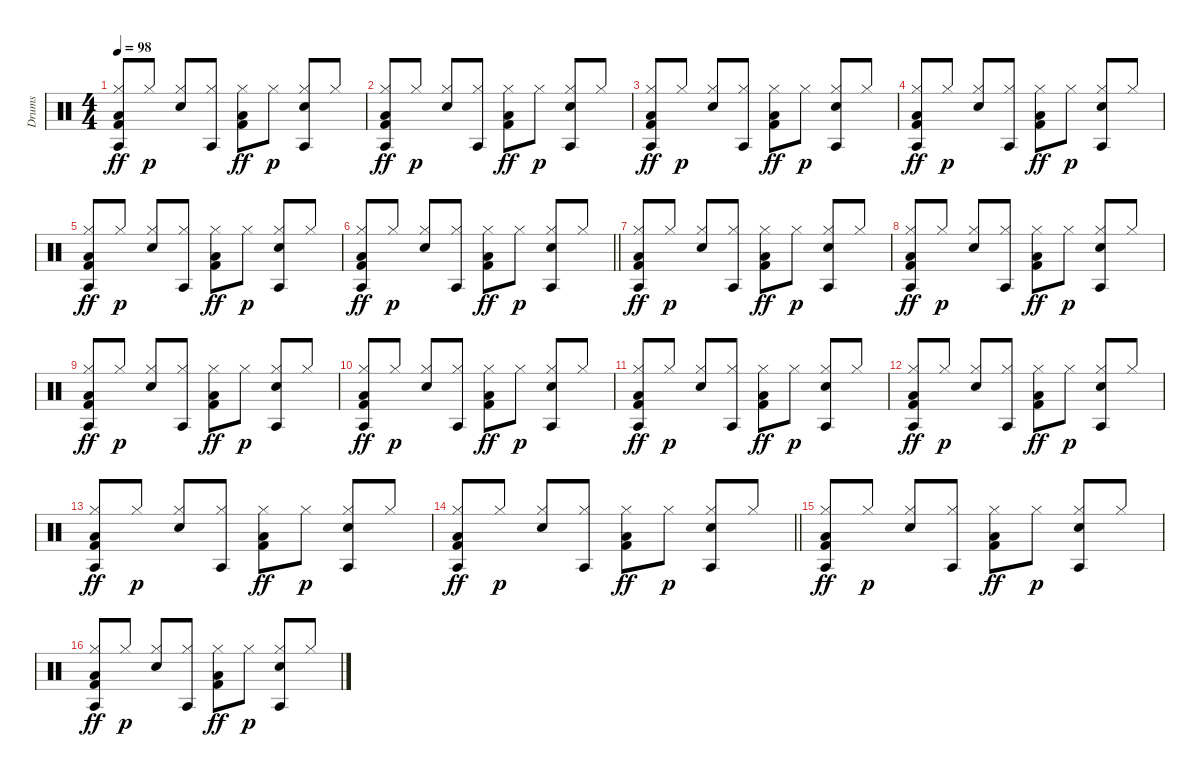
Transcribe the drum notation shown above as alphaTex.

\track ("Drums" "Drums") {instrument percussion}
\staff {score}
\articulation defaults
\ts (4 4)
\tempo 98
\clef neutral
\ks c
("Agogo tow (hit)" "Hi-Hat (closed)" "Low Floor Tom (hit)" "Kick (hit) 2").8{dy ff} "Hi-Hat (closed)".8{dy p} ("Hi-Hat (closed)" "Snare (hit) 2").8 ("Agogo tow (hit)" "Hi-Hat (closed)").8 ("Hi-Hat (closed)" "Low Floor Tom (hit)" "Kick (hit) 2").8{dy ff} "Hi-Hat (closed)".8{dy p} ("Agogo tow (hit)" "Hi-Hat (closed)" "Snare (hit) 2").8 "Hi-Hat (closed)".8 |
("Agogo tow (hit)" "Hi-Hat (closed)" "Low Floor Tom (hit)" "Kick (hit) 2").8{dy ff} "Hi-Hat (closed)".8{dy p} ("Hi-Hat (closed)" "Snare (hit) 2").8 ("Agogo tow (hit)" "Hi-Hat (closed)").8 ("Hi-Hat (closed)" "Low Floor Tom (hit)" "Kick (hit) 2").8{dy ff} "Hi-Hat (closed)".8{dy p} ("Agogo tow (hit)" "Hi-Hat (closed)" "Snare (hit) 2").8 "Hi-Hat (closed)".8 |
("Agogo tow (hit)" "Hi-Hat (closed)" "Low Floor Tom (hit)" "Kick (hit) 2").8{dy ff} "Hi-Hat (closed)".8{dy p} ("Hi-Hat (closed)" "Snare (hit) 2").8 ("Agogo tow (hit)" "Hi-Hat (closed)").8 ("Hi-Hat (closed)" "Low Floor Tom (hit)" "Kick (hit) 2").8{dy ff} "Hi-Hat (closed)".8{dy p} ("Agogo tow (hit)" "Hi-Hat (closed)" "Snare (hit) 2").8 "Hi-Hat (closed)".8 |
("Agogo tow (hit)" "Hi-Hat (closed)" "Low Floor Tom (hit)" "Kick (hit) 2").8{dy ff} "Hi-Hat (closed)".8{dy p} ("Hi-Hat (closed)" "Snare (hit) 2").8 ("Agogo tow (hit)" "Hi-Hat (closed)").8 ("Hi-Hat (closed)" "Low Floor Tom (hit)" "Kick (hit) 2").8{dy ff} "Hi-Hat (closed)".8{dy p} ("Agogo tow (hit)" "Hi-Hat (closed)" "Snare (hit) 2").8 "Hi-Hat (closed)".8 |
("Agogo tow (hit)" "Hi-Hat (closed)" "Low Floor Tom (hit)" "Kick (hit) 2").8{dy ff} "Hi-Hat (closed)".8{dy p} ("Hi-Hat (closed)" "Snare (hit) 2").8 ("Agogo tow (hit)" "Hi-Hat (closed)").8 ("Hi-Hat (closed)" "Low Floor Tom (hit)" "Kick (hit) 2").8{dy ff} "Hi-Hat (closed)".8{dy p} ("Agogo tow (hit)" "Hi-Hat (closed)" "Snare (hit) 2").8 "Hi-Hat (closed)".8 |
\barLineRight lightlight
("Agogo tow (hit)" "Hi-Hat (closed)" "Low Floor Tom (hit)" "Kick (hit) 2").8{dy ff} "Hi-Hat (closed)".8{dy p} ("Hi-Hat (closed)" "Snare (hit) 2").8 ("Agogo tow (hit)" "Hi-Hat (closed)").8 ("Hi-Hat (closed)" "Low Floor Tom (hit)" "Kick (hit) 2").8{dy ff} "Hi-Hat (closed)".8{dy p} ("Agogo tow (hit)" "Hi-Hat (closed)" "Snare (hit) 2").8 "Hi-Hat (closed)".8 |
\section ("" "")
("Agogo tow (hit)" "Hi-Hat (closed)" "Low Floor Tom (hit)" "Kick (hit) 2").8{dy ff} "Hi-Hat (closed)".8{dy p} ("Hi-Hat (closed)" "Snare (hit) 2").8 ("Agogo tow (hit)" "Hi-Hat (closed)").8 ("Hi-Hat (closed)" "Low Floor Tom (hit)" "Kick (hit) 2").8{dy ff} "Hi-Hat (closed)".8{dy p} ("Agogo tow (hit)" "Hi-Hat (closed)" "Snare (hit) 2").8 "Hi-Hat (closed)".8 |
("Agogo tow (hit)" "Hi-Hat (closed)" "Low Floor Tom (hit)" "Kick (hit) 2").8{dy ff} "Hi-Hat (closed)".8{dy p} ("Hi-Hat (closed)" "Snare (hit) 2").8 ("Agogo tow (hit)" "Hi-Hat (closed)").8 ("Hi-Hat (closed)" "Low Floor Tom (hit)" "Kick (hit) 2").8{dy ff} "Hi-Hat (closed)".8{dy p} ("Agogo tow (hit)" "Hi-Hat (closed)" "Snare (hit) 2").8 "Hi-Hat (closed)".8 |
("Agogo tow (hit)" "Hi-Hat (closed)" "Low Floor Tom (hit)" "Kick (hit) 2").8{dy ff} "Hi-Hat (closed)".8{dy p} ("Hi-Hat (closed)" "Snare (hit) 2").8 ("Agogo tow (hit)" "Hi-Hat (closed)").8 ("Hi-Hat (closed)" "Low Floor Tom (hit)" "Kick (hit) 2").8{dy ff} "Hi-Hat (closed)".8{dy p} ("Agogo tow (hit)" "Hi-Hat (closed)" "Snare (hit) 2").8 "Hi-Hat (closed)".8 |
("Agogo tow (hit)" "Hi-Hat (closed)" "Low Floor Tom (hit)" "Kick (hit) 2").8{dy ff} "Hi-Hat (closed)".8{dy p} ("Hi-Hat (closed)" "Snare (hit) 2").8 ("Agogo tow (hit)" "Hi-Hat (closed)").8 ("Hi-Hat (closed)" "Low Floor Tom (hit)" "Kick (hit) 2").8{dy ff} "Hi-Hat (closed)".8{dy p} ("Agogo tow (hit)" "Hi-Hat (closed)" "Snare (hit) 2").8 "Hi-Hat (closed)".8 |
("Agogo tow (hit)" "Hi-Hat (closed)" "Low Floor Tom (hit)" "Kick (hit) 2").8{dy ff} "Hi-Hat (closed)".8{dy p} ("Hi-Hat (closed)" "Snare (hit) 2").8 ("Agogo tow (hit)" "Hi-Hat (closed)").8 ("Hi-Hat (closed)" "Low Floor Tom (hit)" "Kick (hit) 2").8{dy ff} "Hi-Hat (closed)".8{dy p} ("Agogo tow (hit)" "Hi-Hat (closed)" "Snare (hit) 2").8 "Hi-Hat (closed)".8 |
("Agogo tow (hit)" "Hi-Hat (closed)" "Low Floor Tom (hit)" "Kick (hit) 2").8{dy ff} "Hi-Hat (closed)".8{dy p} ("Hi-Hat (closed)" "Snare (hit) 2").8 ("Agogo tow (hit)" "Hi-Hat (closed)").8 ("Hi-Hat (closed)" "Low Floor Tom (hit)" "Kick (hit) 2").8{dy ff} "Hi-Hat (closed)".8{dy p} ("Agogo tow (hit)" "Hi-Hat (closed)" "Snare (hit) 2").8 "Hi-Hat (closed)".8 |
("Agogo tow (hit)" "Hi-Hat (closed)" "Low Floor Tom (hit)" "Kick (hit) 2").8{dy ff} "Hi-Hat (closed)".8{dy p} ("Hi-Hat (closed)" "Snare (hit) 2").8 ("Agogo tow (hit)" "Hi-Hat (closed)").8 ("Hi-Hat (closed)" "Low Floor Tom (hit)" "Kick (hit) 2").8{dy ff} "Hi-Hat (closed)".8{dy p} ("Agogo tow (hit)" "Hi-Hat (closed)" "Snare (hit) 2").8 "Hi-Hat (closed)".8 |
\barLineRight lightlight
("Agogo tow (hit)" "Hi-Hat (closed)" "Low Floor Tom (hit)" "Kick (hit) 2").8{dy ff} "Hi-Hat (closed)".8{dy p} ("Hi-Hat (closed)" "Snare (hit) 2").8 ("Agogo tow (hit)" "Hi-Hat (closed)").8 ("Hi-Hat (closed)" "Low Floor Tom (hit)" "Kick (hit) 2").8{dy ff} "Hi-Hat (closed)".8{dy p} ("Agogo tow (hit)" "Hi-Hat (closed)" "Snare (hit) 2").8 "Hi-Hat (closed)".8 |
\section ("" "")
("Agogo tow (hit)" "Hi-Hat (closed)" "Low Floor Tom (hit)" "Kick (hit) 2").8{dy ff} "Hi-Hat (closed)".8{dy p} ("Hi-Hat (closed)" "Snare (hit) 2").8 ("Agogo tow (hit)" "Hi-Hat (closed)").8 ("Hi-Hat (closed)" "Low Floor Tom (hit)" "Kick (hit) 2").8{dy ff} "Hi-Hat (closed)".8{dy p} ("Agogo tow (hit)" "Hi-Hat (closed)" "Snare (hit) 2").8 "Hi-Hat (closed)".8 |
("Agogo tow (hit)" "Hi-Hat (closed)" "Low Floor Tom (hit)" "Kick (hit) 2").8{dy ff} "Hi-Hat (closed)".8{dy p} ("Hi-Hat (closed)" "Snare (hit) 2").8 ("Agogo tow (hit)" "Hi-Hat (closed)").8 ("Hi-Hat (closed)" "Low Floor Tom (hit)" "Kick (hit) 2").8{dy ff} "Hi-Hat (closed)".8{dy p} ("Agogo tow (hit)" "Hi-Hat (closed)" "Snare (hit) 2").8 "Hi-Hat (closed)".8
